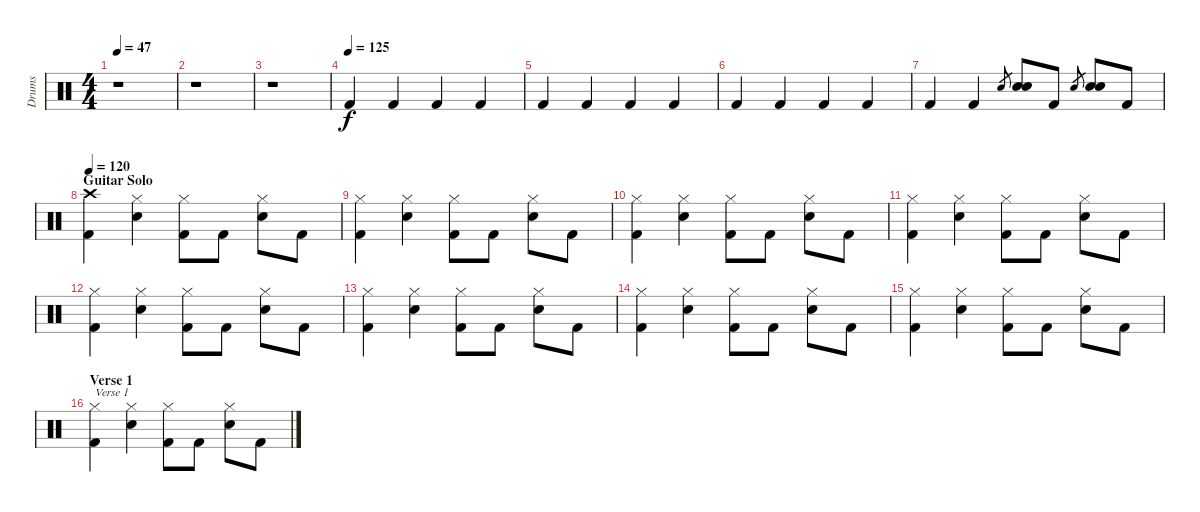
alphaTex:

\track ("Drums" "Drums") {instrument percussion}
\staff {score}
\articulation defaults
\ts (4 4)
\tempo 47
\clef neutral
\ks c
r.1{dy f} |
r.1 |
r.1{volume 0} |
\tempo (125)
"Kick (hit) 2".4{volume 13} "Kick (hit) 2".4 "Kick (hit) 2".4 "Kick (hit) 2".4 |
"Kick (hit) 2".4 "Kick (hit) 2".4 "Kick (hit) 2".4 "Kick (hit) 2".4 |
"Kick (hit) 2".4 "Kick (hit) 2".4 "Kick (hit) 2".4 "Kick (hit) 2".4 |
"Kick (hit) 2".4 "Kick (hit) 2".4 "Snare (hit) 2".8{gr} ("Snare (hit) 2" "Snare (hit) 2").8 "Kick (hit) 2".8 "Snare (hit) 2".8{gr} ("Snare (hit) 2" "Snare (hit) 2").8 "Kick (hit) 2".8 |
\section ("" "Guitar Solo")
\tempo 120
("Crash high (hit)" "Kick (hit) 2").4 ("Hi-Hat (closed)" "Snare (hit) 2").4 ("Hi-Hat (closed)" "Kick (hit) 2").8 "Kick (hit) 2".8 ("Hi-Hat (closed)" "Snare (hit) 2").8 "Kick (hit) 2".8 |
("Hi-Hat (closed)" "Kick (hit) 2").4 ("Hi-Hat (closed)" "Snare (hit) 2").4 ("Hi-Hat (closed)" "Kick (hit) 2").8 "Kick (hit) 2".8 ("Hi-Hat (closed)" "Snare (hit) 2").8 "Kick (hit) 2".8 |
("Hi-Hat (closed)" "Kick (hit) 2").4 ("Hi-Hat (closed)" "Snare (hit) 2").4 ("Hi-Hat (closed)" "Kick (hit) 2").8 "Kick (hit) 2".8 ("Hi-Hat (closed)" "Snare (hit) 2").8 "Kick (hit) 2".8 |
("Hi-Hat (closed)" "Kick (hit) 2").4 ("Hi-Hat (closed)" "Snare (hit) 2").4 ("Hi-Hat (closed)" "Kick (hit) 2").8 "Kick (hit) 2".8 ("Hi-Hat (closed)" "Snare (hit) 2").8 "Kick (hit) 2".8 |
("Hi-Hat (closed)" "Kick (hit) 2").4 ("Hi-Hat (closed)" "Snare (hit) 2").4 ("Hi-Hat (closed)" "Kick (hit) 2").8 "Kick (hit) 2".8 ("Hi-Hat (closed)" "Snare (hit) 2").8 "Kick (hit) 2".8 |
("Hi-Hat (closed)" "Kick (hit) 2").4 ("Hi-Hat (closed)" "Snare (hit) 2").4 ("Hi-Hat (closed)" "Kick (hit) 2").8 "Kick (hit) 2".8 ("Hi-Hat (closed)" "Snare (hit) 2").8 "Kick (hit) 2".8 |
("Hi-Hat (closed)" "Kick (hit) 2").4 ("Hi-Hat (closed)" "Snare (hit) 2").4 ("Hi-Hat (closed)" "Kick (hit) 2").8 "Kick (hit) 2".8 ("Hi-Hat (closed)" "Snare (hit) 2").8 "Kick (hit) 2".8 |
("Hi-Hat (closed)" "Kick (hit) 2").4 ("Hi-Hat (closed)" "Snare (hit) 2").4 ("Hi-Hat (closed)" "Kick (hit) 2").8 "Kick (hit) 2".8 ("Hi-Hat (closed)" "Snare (hit) 2").8 "Kick (hit) 2".8 |
\section ("" "Verse 1")
("Hi-Hat (closed)" "Kick (hit) 2").4{txt "Verse 1"} ("Hi-Hat (closed)" "Snare (hit) 2").4 ("Hi-Hat (closed)" "Kick (hit) 2").8 "Kick (hit) 2".8 ("Hi-Hat (closed)" "Snare (hit) 2").8 "Kick (hit) 2".8
